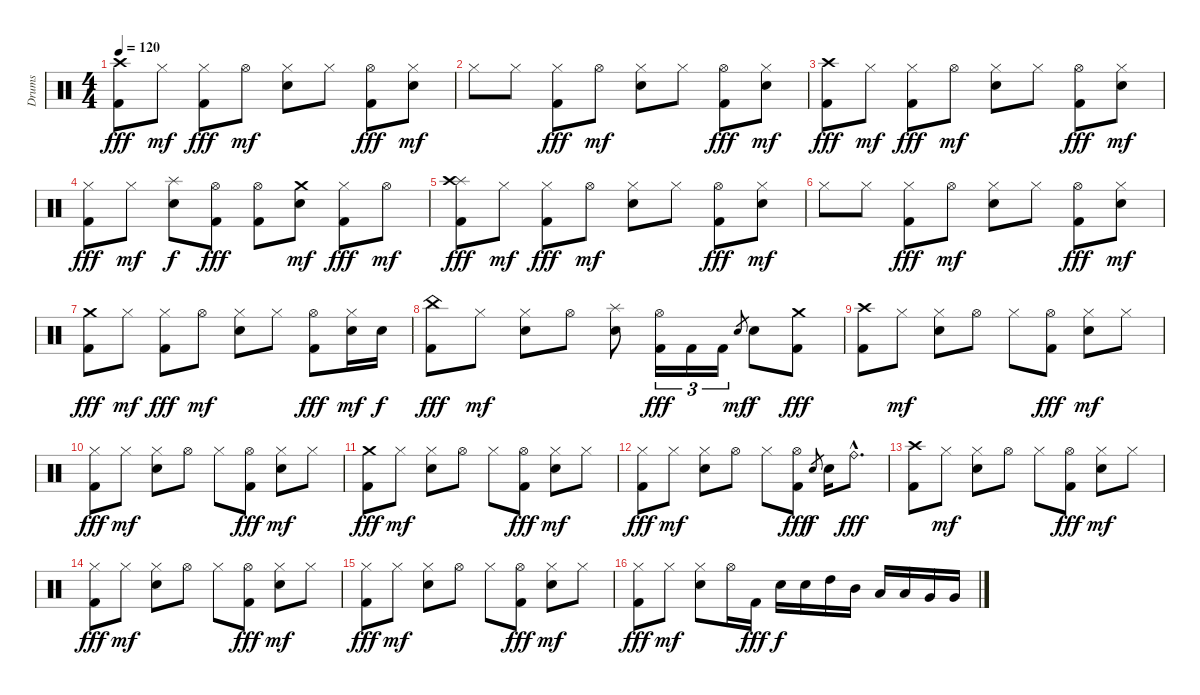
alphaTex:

\track ("Drums" "Drums") {instrument percussion}
\staff {score}
\articulation defaults
\ts (4 4)
\tempo 120
\clef neutral
\ks c
("Crash high (hit)" "Kick (hit) 2").8{dy fff} "Hi-Hat (closed)".8{dy mf} ("Hi-Hat (closed)" "Kick (hit) 2").8{dy fff} "Hi-Hat (open)".8{dy mf} ("Hi-Hat (closed)" "Electric Snare (hit)").8 "Hi-Hat (closed)".8 ("Hi-Hat (open)" "Kick (hit) 2").8{dy fff} ("Hi-Hat (closed)" "Electric Snare (hit)").8{dy mf} |
"Hi-Hat (closed)".8 "Hi-Hat (closed)".8 ("Hi-Hat (closed)" "Kick (hit) 2").8{dy fff} "Hi-Hat (open)".8{dy mf} ("Hi-Hat (closed)" "Electric Snare (hit)").8 "Hi-Hat (closed)".8 ("Hi-Hat (open)" "Kick (hit) 2").8{dy fff} ("Hi-Hat (closed)" "Electric Snare (hit)").8{dy mf} |
("Crash high (hit)" "Kick (hit) 2").8{dy fff} "Hi-Hat (closed)".8{dy mf} ("Hi-Hat (closed)" "Kick (hit) 2").8{dy fff} "Hi-Hat (open)".8{dy mf} ("Hi-Hat (closed)" "Electric Snare (hit)").8 "Hi-Hat (closed)".8 ("Hi-Hat (open)" "Kick (hit) 2").8{dy fff} ("Hi-Hat (closed)" "Electric Snare (hit)").8{dy mf} |
("Hi-Hat (closed)" "Kick (hit) 2").8{dy fff} "Hi-Hat (closed)".8{dy mf} ("Splash (hit)" "Electric Snare (hit)").8{dy f} ("Hi-Hat (open)" "Kick (hit) 2").8{dy fff} ("Hi-Hat (open)" "Kick (hit) 2").8 ("Crash medium (hit)" "Electric Snare (hit)").8{dy mf} ("Hi-Hat (closed)" "Kick (hit) 2").8{dy fff} "Hi-Hat (open)".8{dy mf} |
("Splash (hit)" "Crash high (hit)" "Kick (hit) 2").8{dy fff} "Hi-Hat (closed)".8{dy mf} ("Hi-Hat (closed)" "Kick (hit) 2").8{dy fff} "Hi-Hat (open)".8{dy mf} ("Hi-Hat (closed)" "Electric Snare (hit)").8 "Hi-Hat (closed)".8 ("Hi-Hat (open)" "Kick (hit) 2").8{dy fff} ("Hi-Hat (closed)" "Electric Snare (hit)").8{dy mf} |
"Hi-Hat (closed)".8 "Hi-Hat (closed)".8 ("Hi-Hat (closed)" "Kick (hit) 2").8{dy fff} "Hi-Hat (open)".8{dy mf} ("Hi-Hat (closed)" "Electric Snare (hit)").8 "Hi-Hat (closed)".8 ("Hi-Hat (open)" "Kick (hit) 2").8{dy fff} ("Hi-Hat (closed)" "Electric Snare (hit)").8{dy mf} |
("Crash medium (hit)" "Kick (hit) 2").8{dy fff} "Hi-Hat (closed)".8{dy mf} ("Hi-Hat (closed)" "Kick (hit) 2").8{dy fff} "Hi-Hat (open)".8{dy mf} ("Hi-Hat (closed)" "Electric Snare (hit)").8 "Hi-Hat (closed)".8 ("Hi-Hat (open)" "Kick (hit) 2").8{dy fff} ("Hi-Hat (closed)" "Electric Snare (hit)").16{dy mf} "Electric Snare (hit)".16{dy f} |
("China (hit)" "Kick (hit) 2").8{dy fff} "Hi-Hat (closed)".8{dy mf} ("Hi-Hat (closed)" "Electric Snare (hit)").8 "Hi-Hat (open)".8 ("Splash (hit)" "Electric Snare (hit)").8 ("Hi-Hat (open)" "Kick (hit) 2").16{tu (3 2) dy fff} "Kick (hit) 2".16{tu (3 2)} "Kick (hit) 2".16{tu (3 2)} "Electric Snare (hit)".8{gr dy mf} "Electric Snare (hit)".8{dy f} ("Crash medium (hit)" "Kick (hit) 2").8{dy fff} |
("Crash high (hit)" "Kick (hit) 2").8 "Hi-Hat (closed)".8{dy mf} ("Hi-Hat (closed)" "Electric Snare (hit)").8 "Hi-Hat (open)".8 "Hi-Hat (closed)".8 ("Hi-Hat (open)" "Kick (hit) 2").8{dy fff} ("Hi-Hat (closed)" "Electric Snare (hit)").8{dy mf} "Hi-Hat (closed)".8 |
("Hi-Hat (closed)" "Kick (hit) 2").8{dy fff} "Hi-Hat (closed)".8{dy mf} ("Hi-Hat (closed)" "Electric Snare (hit)").8 "Hi-Hat (open)".8 "Hi-Hat (closed)".8 ("Hi-Hat (open)" "Kick (hit) 2").8{dy fff} ("Hi-Hat (closed)" "Electric Snare (hit)").8{dy mf} "Hi-Hat (closed)".8 |
("Crash medium (hit)" "Kick (hit) 2").8{dy fff} "Hi-Hat (closed)".8{dy mf} ("Hi-Hat (closed)" "Electric Snare (hit)").8 "Hi-Hat (open)".8 "Hi-Hat (closed)".8 ("Hi-Hat (open)" "Kick (hit) 2").8{dy fff} ("Hi-Hat (closed)" "Electric Snare (hit)").8{dy mf} "Hi-Hat (closed)".8 |
("Hi-Hat (closed)" "Kick (hit) 2").8{dy fff} "Hi-Hat (closed)".8{dy mf} ("Hi-Hat (closed)" "Electric Snare (hit)").8 "Hi-Hat (open)".8 "Hi-Hat (closed)".8 ("Hi-Hat (open)" "Kick (hit) 2").8{dy fff} "Electric Snare (hit)".8{gr dy f} "Electric Snare (hit)".16 "Ride (bell)"{hac}.8{d dy fff} |
("Crash high (hit)" "Kick (hit) 2").8 "Hi-Hat (closed)".8{dy mf} ("Hi-Hat (closed)" "Electric Snare (hit)").8 "Hi-Hat (open)".8 "Hi-Hat (closed)".8 ("Hi-Hat (open)" "Kick (hit) 2").8{dy fff} ("Hi-Hat (closed)" "Electric Snare (hit)").8{dy mf} "Hi-Hat (closed)".8 |
("Hi-Hat (closed)" "Kick (hit) 2").8{dy fff} "Hi-Hat (closed)".8{dy mf} ("Hi-Hat (closed)" "Electric Snare (hit)").8 "Hi-Hat (open)".8 "Hi-Hat (closed)".8 ("Hi-Hat (open)" "Kick (hit) 2").8{dy fff} ("Hi-Hat (closed)" "Electric Snare (hit)").8{dy mf} "Hi-Hat (closed)".8 |
("Hi-Hat (closed)" "Kick (hit) 2").8{dy fff} "Hi-Hat (closed)".8{dy mf} ("Hi-Hat (closed)" "Electric Snare (hit)").8 "Hi-Hat (open)".8 "Hi-Hat (closed)".8 ("Hi-Hat (open)" "Kick (hit) 2").8{dy fff} ("Hi-Hat (closed)" "Electric Snare (hit)").8{dy mf} "Hi-Hat (closed)".8 |
("Hi-Hat (closed)" "Kick (hit) 2").8{dy fff} "Hi-Hat (closed)".8{dy mf} ("Hi-Hat (closed)" "Electric Snare (hit)").8 "Hi-Hat (open)".16 "Kick (hit) 2".16{dy fff} "Electric Snare (hit)".16{dy f} "Electric Snare (hit)".16 "High Tom (hit)".16 "Mid Tom (hit)".16 "Low Tom (hit)".16 "Low Tom (hit)".16 "Very Low Tom (hit)".16 "Very Low Tom (hit)".16
